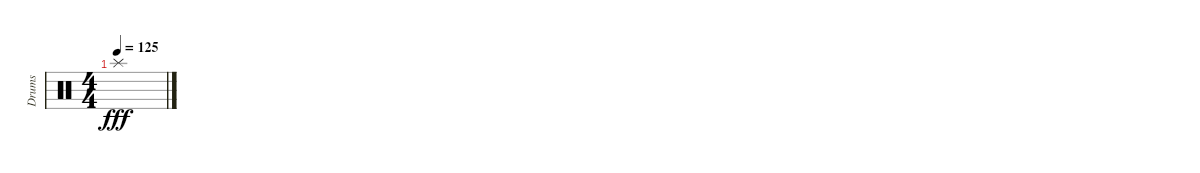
\track ("Drums" "Drums") {instrument percussion}
\staff {score}
\articulation defaults
\ts (4 4)
\tempo 125
\clef neutral
\ks c "Splash (hit)".1{dy fff}
